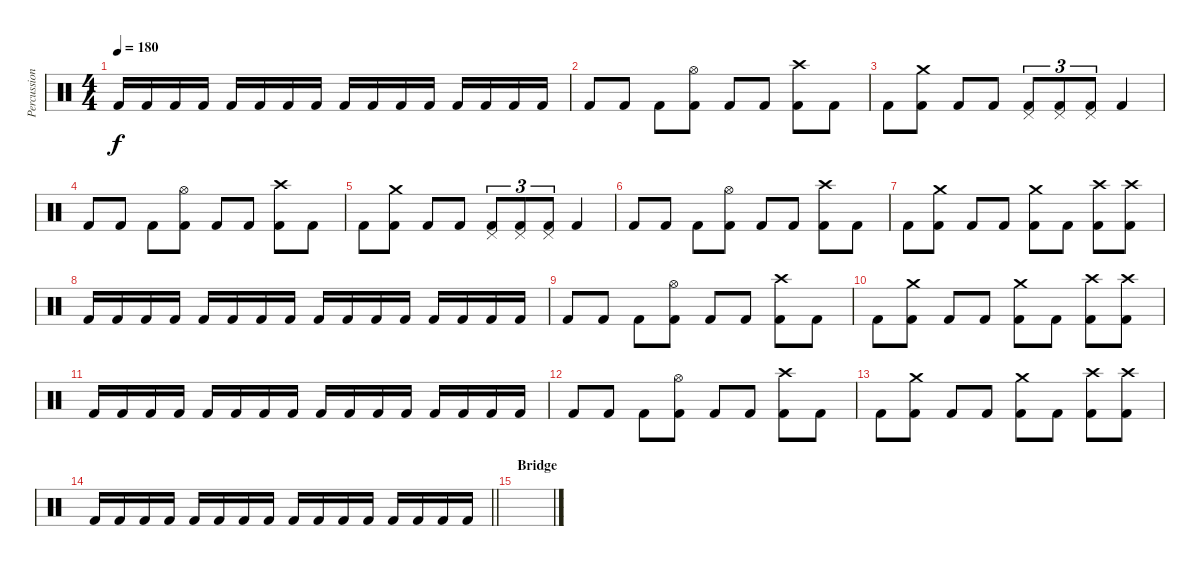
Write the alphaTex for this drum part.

\track ("Percussion" "Percussion") {instrument percussion}
\staff {score}
\articulation defaults
\ts (4 4)
\tempo 180
\clef neutral
\ks c "Kick (hit) 2".16{dy f} "Kick (hit) 2".16 "Kick (hit) 2".16 "Kick (hit) 2".16 "Kick (hit) 2".16 "Kick (hit) 2".16 "Kick (hit) 2".16 "Kick (hit) 2".16 "Kick (hit) 2".16 "Kick (hit) 2".16 "Kick (hit) 2".16 "Kick (hit) 2".16 "Kick (hit) 2".16 "Kick (hit) 2".16 "Kick (hit) 2".16 "Kick (hit) 2".16
|
"Kick (hit) 2".8 "Kick (hit) 2".8 "Kick (hit) 2".8 ("Kick (hit) 2" "Hi-Hat (open)").8 "Kick (hit) 2".8 "Kick (hit) 2".8 ("Kick (hit) 2" "Crash high (hit)").8 "Kick (hit) 2".8 |
"Kick (hit) 2".8 ("Kick (hit) 2" "Crash medium (hit)").8 "Kick (hit) 2".8 "Kick (hit) 2".8 ("Kick (hit) 2" "Pedal Hi-Hat (hit)").8{tu (3 2)} ("Kick (hit) 2" "Pedal Hi-Hat (hit)").8{tu (3 2)} ("Kick (hit) 2" "Pedal Hi-Hat (hit)").8{tu (3 2)} "Kick (hit) 2".4 |
"Kick (hit) 2".8 "Kick (hit) 2".8 "Kick (hit) 2".8 ("Kick (hit) 2" "Hi-Hat (open)").8 "Kick (hit) 2".8 "Kick (hit) 2".8 ("Kick (hit) 2" "Crash high (hit)").8 "Kick (hit) 2".8 |
"Kick (hit) 2".8 ("Kick (hit) 2" "Crash medium (hit)").8 "Kick (hit) 2".8 "Kick (hit) 2".8 ("Kick (hit) 2" "Pedal Hi-Hat (hit)").8{tu (3 2)} ("Kick (hit) 2" "Pedal Hi-Hat (hit)").8{tu (3 2)} ("Kick (hit) 2" "Pedal Hi-Hat (hit)").8{tu (3 2)} "Kick (hit) 2".4 |
"Kick (hit) 2".8 "Kick (hit) 2".8 "Kick (hit) 2".8 ("Kick (hit) 2" "Hi-Hat (open)").8 "Kick (hit) 2".8 "Kick (hit) 2".8 ("Kick (hit) 2" "Crash high (hit)").8 "Kick (hit) 2".8 |
"Kick (hit) 2".8 ("Kick (hit) 2" "Crash medium (hit)").8 "Kick (hit) 2".8 "Kick (hit) 2".8 ("Kick (hit) 2" "Crash medium (hit)").8 "Kick (hit) 2".8 ("Kick (hit) 2" "Crash high (hit)").8 ("Kick (hit) 2" "Crash high (hit)").8 |
"Kick (hit) 2".16 "Kick (hit) 2".16 "Kick (hit) 2".16 "Kick (hit) 2".16 "Kick (hit) 2".16 "Kick (hit) 2".16 "Kick (hit) 2".16 "Kick (hit) 2".16 "Kick (hit) 2".16 "Kick (hit) 2".16 "Kick (hit) 2".16 "Kick (hit) 2".16 "Kick (hit) 2".16 "Kick (hit) 2".16 "Kick (hit) 2".16 "Kick (hit) 2".16 |
"Kick (hit) 2".8 "Kick (hit) 2".8 "Kick (hit) 2".8 ("Kick (hit) 2" "Hi-Hat (open)").8 "Kick (hit) 2".8 "Kick (hit) 2".8 ("Kick (hit) 2" "Crash high (hit)").8 "Kick (hit) 2".8 |
"Kick (hit) 2".8 ("Kick (hit) 2" "Crash medium (hit)").8 "Kick (hit) 2".8 "Kick (hit) 2".8 ("Kick (hit) 2" "Crash medium (hit)").8 "Kick (hit) 2".8 ("Kick (hit) 2" "Crash high (hit)").8 ("Kick (hit) 2" "Crash high (hit)").8 |
"Kick (hit) 2".16 "Kick (hit) 2".16 "Kick (hit) 2".16 "Kick (hit) 2".16 "Kick (hit) 2".16 "Kick (hit) 2".16 "Kick (hit) 2".16 "Kick (hit) 2".16 "Kick (hit) 2".16 "Kick (hit) 2".16 "Kick (hit) 2".16 "Kick (hit) 2".16 "Kick (hit) 2".16 "Kick (hit) 2".16 "Kick (hit) 2".16 "Kick (hit) 2".16 |
"Kick (hit) 2".8 "Kick (hit) 2".8 "Kick (hit) 2".8 ("Kick (hit) 2" "Hi-Hat (open)").8 "Kick (hit) 2".8 "Kick (hit) 2".8 ("Kick (hit) 2" "Crash high (hit)").8 "Kick (hit) 2".8 |
"Kick (hit) 2".8 ("Kick (hit) 2" "Crash medium (hit)").8 "Kick (hit) 2".8 "Kick (hit) 2".8 ("Kick (hit) 2" "Crash medium (hit)").8 "Kick (hit) 2".8 ("Kick (hit) 2" "Crash high (hit)").8 ("Kick (hit) 2" "Crash high (hit)").8 |
\barLineRight lightlight "Kick (hit) 2".16 "Kick (hit) 2".16 "Kick (hit) 2".16 "Kick (hit) 2".16 "Kick (hit) 2".16 "Kick (hit) 2".16 "Kick (hit) 2".16 "Kick (hit) 2".16 "Kick (hit) 2".16 "Kick (hit) 2".16 "Kick (hit) 2".16 "Kick (hit) 2".16 "Kick (hit) 2".16 "Kick (hit) 2".16 "Kick (hit) 2".16 "Kick (hit) 2".16
|
\section ("" "Bridge")
